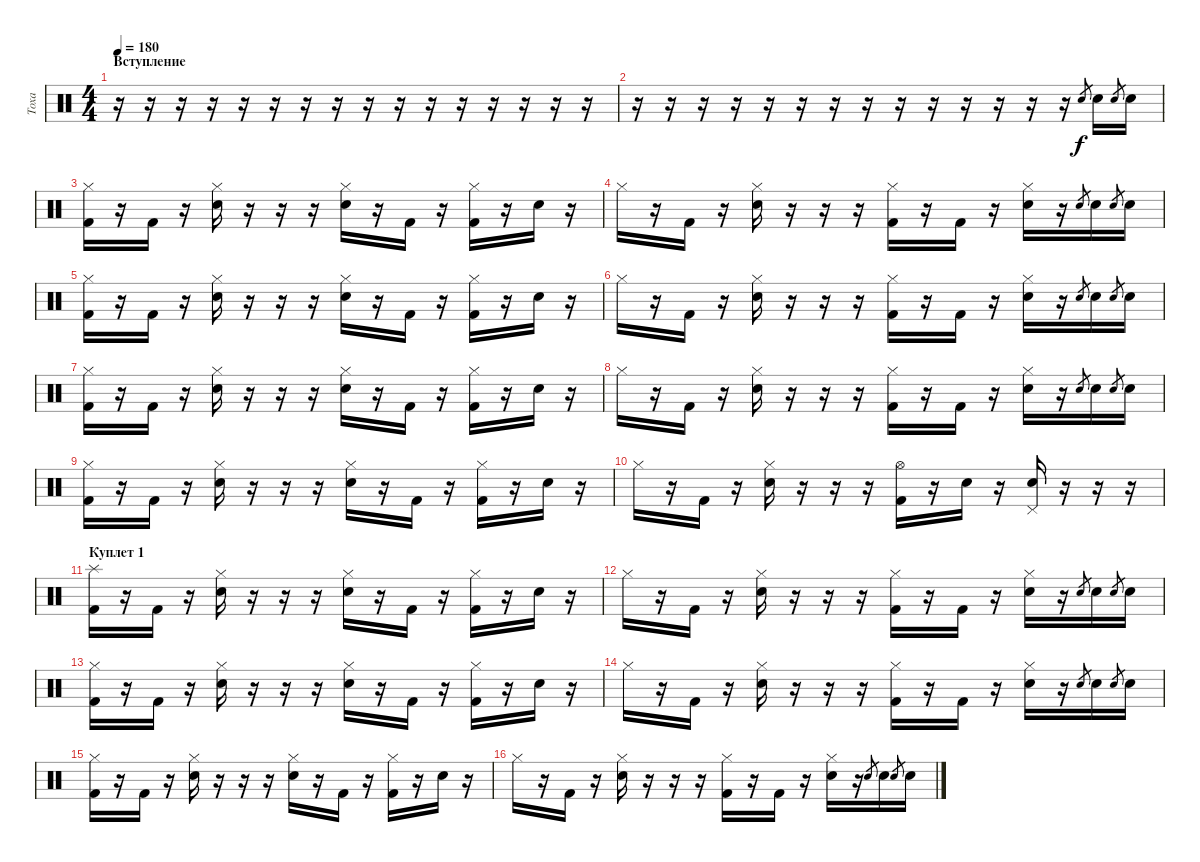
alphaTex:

\track ("Тоха" "Тоха") {instrument percussion}
\staff {score}
\articulation defaults
\ts (4 4)
\section ("" "Вступление")
\tempo 180
\clef neutral
\ks c
r.16{dy f} r.16 r.16 r.16 r.16 r.16 r.16 r.16 r.16 r.16 r.16 r.16 r.16 r.16 r.16 r.16 |
r.16 r.16 r.16 r.16 r.16 r.16 r.16 r.16 r.16 r.16 r.16 r.16 r.16 r.16 "Electric Snare (hit)".8{gr} "Electric Snare (hit)".16 "Electric Snare (hit)".8{gr} "Electric Snare (hit)".16 |
("Hi-Hat (closed)" "Kick (hit) 2").16 r.16 "Kick (hit) 2".16 r.16 ("Hi-Hat (closed)" "Electric Snare (hit)").16 r.16 r.16 r.16 ("Hi-Hat (closed)" "Electric Snare (hit)").16 r.16 "Kick (hit) 2".16 r.16 ("Hi-Hat (closed)" "Kick (hit) 2").16 r.16 "Electric Snare (hit)".16 r.16 |
"Hi-Hat (closed)".16 r.16 "Kick (hit) 2".16 r.16 ("Hi-Hat (closed)" "Electric Snare (hit)").16 r.16 r.16 r.16 ("Hi-Hat (closed)" "Kick (hit) 2").16 r.16 "Kick (hit) 2".16 r.16 ("Hi-Hat (closed)" "Electric Snare (hit)").16 r.16 "Electric Snare (hit)".8{gr} "Electric Snare (hit)".16 "Electric Snare (hit)".8{gr} "Electric Snare (hit)".16 |
("Hi-Hat (closed)" "Kick (hit) 2").16 r.16 "Kick (hit) 2".16 r.16 ("Hi-Hat (closed)" "Electric Snare (hit)").16 r.16 r.16 r.16 ("Hi-Hat (closed)" "Electric Snare (hit)").16 r.16 "Kick (hit) 2".16 r.16 ("Hi-Hat (closed)" "Kick (hit) 2").16 r.16 "Electric Snare (hit)".16 r.16 |
"Hi-Hat (closed)".16 r.16 "Kick (hit) 2".16 r.16 ("Hi-Hat (closed)" "Electric Snare (hit)").16 r.16 r.16 r.16 ("Hi-Hat (closed)" "Kick (hit) 2").16 r.16 "Kick (hit) 2".16 r.16 ("Hi-Hat (closed)" "Electric Snare (hit)").16 r.16 "Electric Snare (hit)".8{gr} "Electric Snare (hit)".16 "Electric Snare (hit)".8{gr} "Electric Snare (hit)".16 |
("Hi-Hat (closed)" "Kick (hit) 2").16 r.16 "Kick (hit) 2".16 r.16 ("Hi-Hat (closed)" "Electric Snare (hit)").16 r.16 r.16 r.16 ("Hi-Hat (closed)" "Electric Snare (hit)").16 r.16 "Kick (hit) 2".16 r.16 ("Hi-Hat (closed)" "Kick (hit) 2").16 r.16 "Electric Snare (hit)".16 r.16 |
"Hi-Hat (closed)".16 r.16 "Kick (hit) 2".16 r.16 ("Hi-Hat (closed)" "Electric Snare (hit)").16 r.16 r.16 r.16 ("Hi-Hat (closed)" "Kick (hit) 2").16 r.16 "Kick (hit) 2".16 r.16 ("Hi-Hat (closed)" "Electric Snare (hit)").16 r.16 "Electric Snare (hit)".8{gr} "Electric Snare (hit)".16 "Electric Snare (hit)".8{gr} "Electric Snare (hit)".16 |
("Hi-Hat (closed)" "Kick (hit) 2").16 r.16 "Kick (hit) 2".16 r.16 ("Hi-Hat (closed)" "Electric Snare (hit)").16 r.16 r.16 r.16 ("Hi-Hat (closed)" "Electric Snare (hit)").16 r.16 "Kick (hit) 2".16 r.16 ("Hi-Hat (closed)" "Kick (hit) 2").16 r.16 "Electric Snare (hit)".16 r.16 |
"Hi-Hat (closed)".16 r.16 "Kick (hit) 2".16 r.16 ("Hi-Hat (closed)" "Electric Snare (hit)").16 r.16 r.16 r.16 ("Hi-Hat (open)" "Kick (hit) 2").16 r.16 "Electric Snare (hit)".16 r.16 ("Pedal Hi-Hat (hit)" "Electric Snare (hit)").16 r.16 r.16 r.16 |
\section ("" "Куплет 1")
("Splash (hit)" "Kick (hit) 2").16 r.16 "Kick (hit) 2".16 r.16 ("Hi-Hat (closed)" "Electric Snare (hit)").16 r.16 r.16 r.16 ("Hi-Hat (closed)" "Electric Snare (hit)").16 r.16 "Kick (hit) 2".16 r.16 ("Hi-Hat (closed)" "Kick (hit) 2").16 r.16 "Electric Snare (hit)".16 r.16 |
"Hi-Hat (closed)".16 r.16 "Kick (hit) 2".16 r.16 ("Hi-Hat (closed)" "Electric Snare (hit)").16 r.16 r.16 r.16 ("Hi-Hat (closed)" "Kick (hit) 2").16 r.16 "Kick (hit) 2".16 r.16 ("Hi-Hat (closed)" "Electric Snare (hit)").16 r.16 "Electric Snare (hit)".8{gr} "Electric Snare (hit)".16 "Electric Snare (hit)".8{gr} "Electric Snare (hit)".16 |
("Hi-Hat (closed)" "Kick (hit) 2").16 r.16 "Kick (hit) 2".16 r.16 ("Hi-Hat (closed)" "Electric Snare (hit)").16 r.16 r.16 r.16 ("Hi-Hat (closed)" "Electric Snare (hit)").16 r.16 "Kick (hit) 2".16 r.16 ("Hi-Hat (closed)" "Kick (hit) 2").16 r.16 "Electric Snare (hit)".16 r.16 |
"Hi-Hat (closed)".16 r.16 "Kick (hit) 2".16 r.16 ("Hi-Hat (closed)" "Electric Snare (hit)").16 r.16 r.16 r.16 ("Hi-Hat (closed)" "Kick (hit) 2").16 r.16 "Kick (hit) 2".16 r.16 ("Hi-Hat (closed)" "Electric Snare (hit)").16 r.16 "Electric Snare (hit)".8{gr} "Electric Snare (hit)".16 "Electric Snare (hit)".8{gr} "Electric Snare (hit)".16 |
("Hi-Hat (closed)" "Kick (hit) 2").16 r.16 "Kick (hit) 2".16 r.16 ("Hi-Hat (closed)" "Electric Snare (hit)").16 r.16 r.16 r.16 ("Hi-Hat (closed)" "Electric Snare (hit)").16 r.16 "Kick (hit) 2".16 r.16 ("Hi-Hat (closed)" "Kick (hit) 2").16 r.16 "Electric Snare (hit)".16 r.16 |
"Hi-Hat (closed)".16 r.16 "Kick (hit) 2".16 r.16 ("Hi-Hat (closed)" "Electric Snare (hit)").16 r.16 r.16 r.16 ("Hi-Hat (closed)" "Kick (hit) 2").16 r.16 "Kick (hit) 2".16 r.16 ("Hi-Hat (closed)" "Electric Snare (hit)").16 r.16 "Electric Snare (hit)".8{gr} "Electric Snare (hit)".16 "Electric Snare (hit)".8{gr} "Electric Snare (hit)".16
